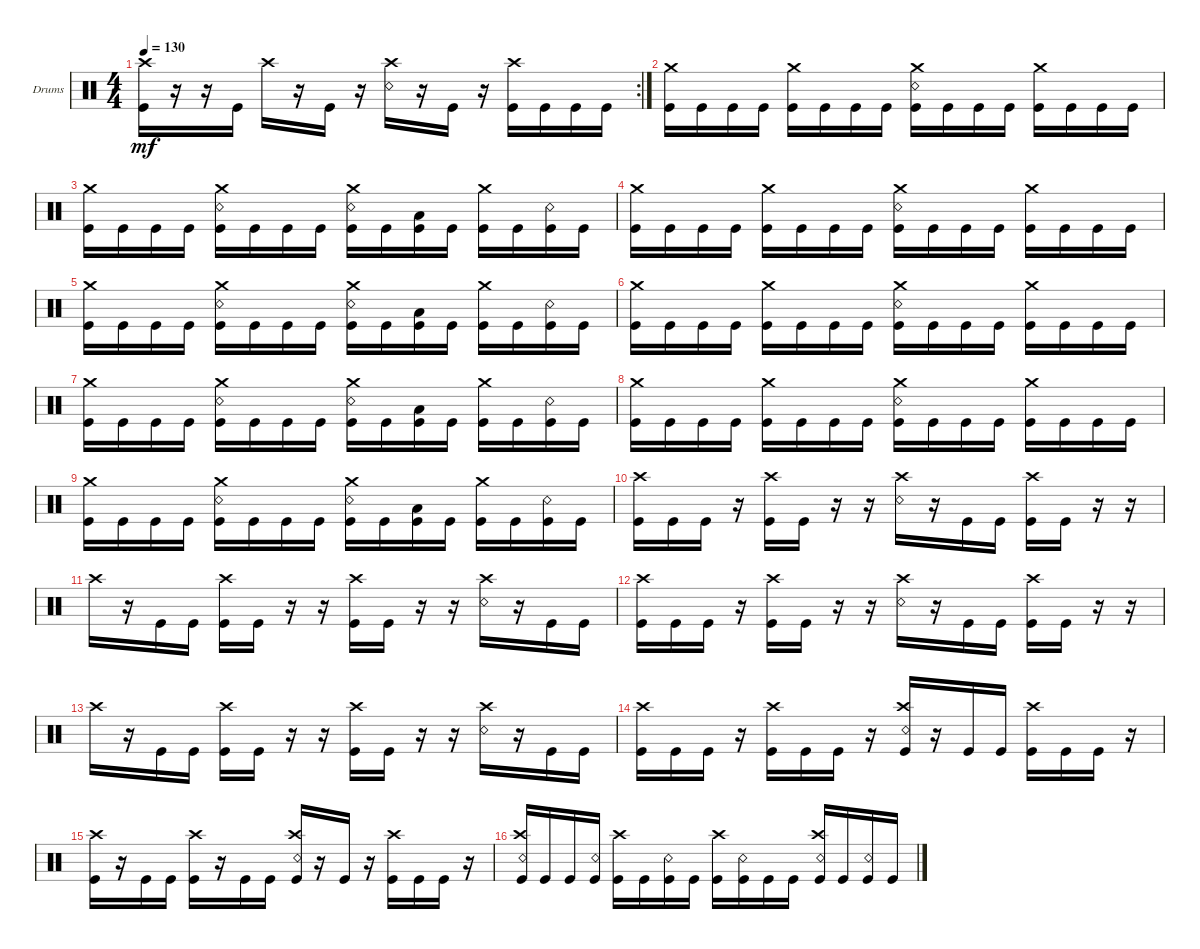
\defaultSystemsLayout 4
\bracketExtendMode groupsimilarinstruments
\firstSystemTrackNameOrientation horizontal
\otherSystemsTrackNameOrientation horizontal
\track ("Drums" "Drums") {instrument percussion}
\staff {score}
\articulation defaults
\rc 2
\ts (4 4)
\tempo 130
\clef neutral
\ks c
("Kick (hit)" "Crash high (hit)").16{dy mf} r.16 r.16 "Kick (hit)".16 "Crash high (hit)".16 r.16 "Kick (hit)".16 r.16 ("Crash high (hit)" "Snare (rim shot)").16 r.16 "Kick (hit)".16 r.16 ("Crash high (hit)" "Kick (hit)").16 "Kick (hit)".16 "Kick (hit)".16 "Kick (hit)".16 |
("Kick (hit)" "Crash medium (hit)").16 "Kick (hit)".16 "Kick (hit)".16 "Kick (hit)".16 ("Kick (hit)" "Crash medium (hit)").16 "Kick (hit)".16 "Kick (hit)".16 "Kick (hit)".16 ("Kick (hit)" "Crash medium (hit)" "Snare (rim shot)").16 "Kick (hit)".16 "Kick (hit)".16 "Kick (hit)".16 ("Kick (hit)" "Crash medium (hit)").16 "Kick (hit)".16 "Kick (hit)".16 "Kick (hit)".16 |
("Kick (hit)" "Crash medium (hit)").16 "Kick (hit)".16 "Kick (hit)".16 "Kick (hit)".16 ("Kick (hit)" "Crash medium (hit)" "Snare (rim shot)").16 "Kick (hit)".16 "Kick (hit)".16 "Kick (hit)".16 ("Kick (hit)" "Crash medium (hit)" "Snare (rim shot)").16 "Kick (hit)".16 ("Kick (hit)" "Low Tom (hit)").16 "Kick (hit)".16 ("Kick (hit)" "Crash medium (hit)").16 "Kick (hit)".16 ("Kick (hit)" "Snare (rim shot)").16 "Kick (hit)".16 |
("Kick (hit)" "Crash medium (hit)").16 "Kick (hit)".16 "Kick (hit)".16 "Kick (hit)".16 ("Kick (hit)" "Crash medium (hit)").16 "Kick (hit)".16 "Kick (hit)".16 "Kick (hit)".16 ("Kick (hit)" "Crash medium (hit)" "Snare (rim shot)").16 "Kick (hit)".16 "Kick (hit)".16 "Kick (hit)".16 ("Kick (hit)" "Crash medium (hit)").16 "Kick (hit)".16 "Kick (hit)".16 "Kick (hit)".16 |
("Kick (hit)" "Crash medium (hit)").16 "Kick (hit)".16 "Kick (hit)".16 "Kick (hit)".16 ("Kick (hit)" "Crash medium (hit)" "Snare (rim shot)").16 "Kick (hit)".16 "Kick (hit)".16 "Kick (hit)".16 ("Kick (hit)" "Crash medium (hit)" "Snare (rim shot)").16 "Kick (hit)".16 ("Kick (hit)" "Low Tom (hit)").16 "Kick (hit)".16 ("Kick (hit)" "Crash medium (hit)").16 "Kick (hit)".16 ("Kick (hit)" "Snare (rim shot)").16 "Kick (hit)".16 |
("Kick (hit)" "Crash medium (hit)").16 "Kick (hit)".16 "Kick (hit)".16 "Kick (hit)".16 ("Kick (hit)" "Crash medium (hit)").16 "Kick (hit)".16 "Kick (hit)".16 "Kick (hit)".16 ("Kick (hit)" "Crash medium (hit)" "Snare (rim shot)").16 "Kick (hit)".16 "Kick (hit)".16 "Kick (hit)".16 ("Kick (hit)" "Crash medium (hit)").16 "Kick (hit)".16 "Kick (hit)".16 "Kick (hit)".16 |
("Kick (hit)" "Crash medium (hit)").16 "Kick (hit)".16 "Kick (hit)".16 "Kick (hit)".16 ("Kick (hit)" "Crash medium (hit)" "Snare (rim shot)").16 "Kick (hit)".16 "Kick (hit)".16 "Kick (hit)".16 ("Kick (hit)" "Crash medium (hit)" "Snare (rim shot)").16 "Kick (hit)".16 ("Kick (hit)" "Low Tom (hit)").16 "Kick (hit)".16 ("Kick (hit)" "Crash medium (hit)").16 "Kick (hit)".16 ("Kick (hit)" "Snare (rim shot)").16 "Kick (hit)".16 |
("Kick (hit)" "Crash medium (hit)").16 "Kick (hit)".16 "Kick (hit)".16 "Kick (hit)".16 ("Kick (hit)" "Crash medium (hit)").16 "Kick (hit)".16 "Kick (hit)".16 "Kick (hit)".16 ("Kick (hit)" "Crash medium (hit)" "Snare (rim shot)").16 "Kick (hit)".16 "Kick (hit)".16 "Kick (hit)".16 ("Kick (hit)" "Crash medium (hit)").16 "Kick (hit)".16 "Kick (hit)".16 "Kick (hit)".16 |
("Kick (hit)" "Crash medium (hit)").16 "Kick (hit)".16 "Kick (hit)".16 "Kick (hit)".16 ("Kick (hit)" "Crash medium (hit)" "Snare (rim shot)").16 "Kick (hit)".16 "Kick (hit)".16 "Kick (hit)".16 ("Kick (hit)" "Crash medium (hit)" "Snare (rim shot)").16 "Kick (hit)".16 ("Kick (hit)" "Low Tom (hit)").16 "Kick (hit)".16 ("Kick (hit)" "Crash medium (hit)").16 "Kick (hit)".16 ("Kick (hit)" "Snare (rim shot)").16 "Kick (hit)".16 |
("Kick (hit)" "Crash high (hit)").16 "Kick (hit)".16 "Kick (hit)".16 r.16 ("Kick (hit)" "Crash high (hit)").16 "Kick (hit)".16 r.16 r.16 ("Crash high (hit)" "Snare (rim shot)").16 r.16 "Kick (hit)".16 "Kick (hit)".16 ("Kick (hit)" "Crash high (hit)").16 "Kick (hit)".16 r.16 r.16 |
"Crash high (hit)".16 r.16 "Kick (hit)".16 "Kick (hit)".16 ("Kick (hit)" "Crash high (hit)").16 "Kick (hit)".16 r.16 r.16 ("Kick (hit)" "Crash high (hit)").16 "Kick (hit)".16 r.16 r.16 ("Crash high (hit)" "Snare (rim shot)").16 r.16 "Kick (hit)".16 "Kick (hit)".16 |
("Kick (hit)" "Crash high (hit)").16 "Kick (hit)".16 "Kick (hit)".16 r.16 ("Kick (hit)" "Crash high (hit)").16 "Kick (hit)".16 r.16 r.16 ("Crash high (hit)" "Snare (rim shot)").16 r.16 "Kick (hit)".16 "Kick (hit)".16 ("Kick (hit)" "Crash high (hit)").16 "Kick (hit)".16 r.16 r.16 |
"Crash high (hit)".16 r.16 "Kick (hit)".16 "Kick (hit)".16 ("Kick (hit)" "Crash high (hit)").16 "Kick (hit)".16 r.16 r.16 ("Kick (hit)" "Crash high (hit)").16 "Kick (hit)".16 r.16 r.16 ("Crash high (hit)" "Snare (rim shot)").16 r.16 "Kick (hit)".16 "Kick (hit)".16 |
("Kick (hit)" "Crash high (hit)").16 "Kick (hit)".16 "Kick (hit)".16 r.16 ("Kick (hit)" "Crash high (hit)").16 "Kick (hit)".16 "Kick (hit)".16 r.16 ("Kick (hit)" "Crash high (hit)" "Snare (rim shot)").16 r.16 "Kick (hit)".16 "Kick (hit)".16 ("Kick (hit)" "Crash high (hit)").16 "Kick (hit)".16 "Kick (hit)".16 r.16 |
("Kick (hit)" "Crash high (hit)").16 r.16 "Kick (hit)".16 "Kick (hit)".16 ("Kick (hit)" "Crash high (hit)").16 r.16 "Kick (hit)".16 "Kick (hit)".16 ("Kick (hit)" "Crash high (hit)" "Snare (rim shot)").16 r.16 "Kick (hit)".16 r.16 ("Kick (hit)" "Crash high (hit)").16 "Kick (hit)".16 "Kick (hit)".16 r.16 |
("Kick (hit)" "Snare (rim shot)" "Crash high (hit)").16 "Kick (hit)".16 "Kick (hit)".16 ("Kick (hit)" "Snare (rim shot)").16 ("Kick (hit)" "Crash high (hit)").16 "Kick (hit)".16 ("Kick (hit)" "Snare (rim shot)").16 "Kick (hit)".16 ("Kick (hit)" "Crash high (hit)").16 ("Kick (hit)" "Snare (rim shot)").16 "Kick (hit)".16 "Kick (hit)".16 ("Kick (hit)" "Snare (rim shot)" "Crash high (hit)").16 "Kick (hit)".16 ("Kick (hit)" "Snare (rim shot)").16 "Kick (hit)".16
